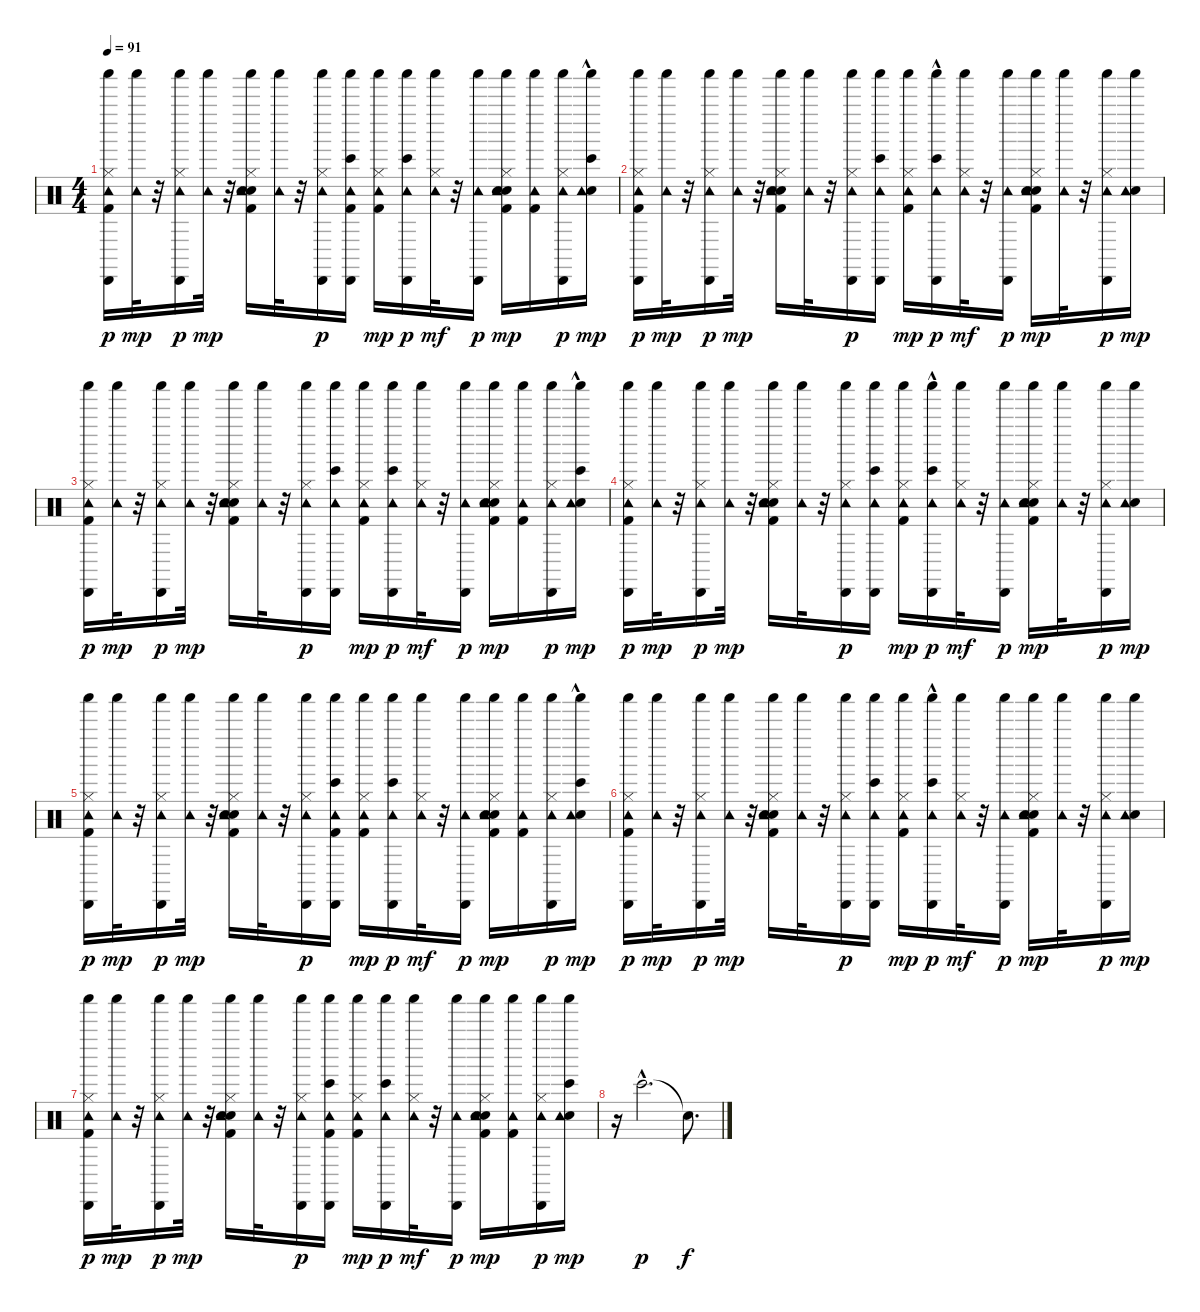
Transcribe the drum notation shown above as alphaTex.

\track "" {instrument percussion}
\staff {score}
\articulation defaults
\ts (4 4)
\tempo 91
\clef neutral
\ks c
("Kick (hit) 2" "Hi-Hat (closed)" "Tambourine (hit)" "Shaker (hit)" "Cabasa (hit)").16{dy p} ("Tambourine (hit)" "Shaker (hit)").32{dy mp} r.32 ("Hi-Hat (closed)" "Tambourine (hit)" "Shaker (hit)" "Cabasa (hit)").16{dy p} ("Tambourine (hit)" "Shaker (hit)").32{dy mp} r.32 ("Kick (hit) 2" "Electric Snare (hit)" "Hi-Hat (closed)" "Hand Clap (hit)" "Tambourine (hit)" "Shaker (hit)").16 ("Tambourine (hit)" "Shaker (hit)").32 r.32 ("Hi-Hat (closed)" "Tambourine (hit)" "Shaker (hit)" "Cabasa (hit)").16{dy p} ("Kick (hit) 2" "Tambourine (hit)" "Shaker (hit)" "Cabasa (hit)" "Bongo High (hit)").16 ("Kick (hit) 2" "Hi-Hat (closed)" "Tambourine (hit)" "Shaker (hit)").16{dy mp} ("Tambourine (hit)" "Shaker (hit)" "Cabasa (hit)" "Bongo High (hit)").16{dy p} ("Hi-Hat (closed)" "Tambourine (hit)" "Shaker (hit)").32{dy mf} r.32 ("Tambourine (hit)" "Shaker (hit)" "Cabasa (hit)").16{dy p} ("Kick (hit) 2" "Electric Snare (hit)" "Hi-Hat (closed)" "Hand Clap (hit)" "Tambourine (hit)" "Shaker (hit)").16{dy mp} ("Kick (hit) 2" "Tambourine (hit)" "Shaker (hit)").16 ("Hi-Hat (closed)" "Tambourine (hit)" "Shaker (hit)" "Cabasa (hit)").16{dy p} ("Electric Snare (hit)" "Tambourine (hit)" "Shaker (hit)" "Bongo High (hit)"{hac}).16{dy mp} |
("Kick (hit) 2" "Hi-Hat (closed)" "Tambourine (hit)" "Shaker (hit)" "Cabasa (hit)").16{dy p} ("Tambourine (hit)" "Shaker (hit)").32{dy mp} r.32 ("Hi-Hat (closed)" "Tambourine (hit)" "Shaker (hit)" "Cabasa (hit)").16{dy p} ("Tambourine (hit)" "Shaker (hit)").32{dy mp} r.32 ("Kick (hit) 2" "Electric Snare (hit)" "Hi-Hat (closed)" "Hand Clap (hit)" "Tambourine (hit)" "Shaker (hit)").16 ("Tambourine (hit)" "Shaker (hit)").32 r.32 ("Hi-Hat (closed)" "Tambourine (hit)" "Shaker (hit)" "Cabasa (hit)").16{dy p} ("Tambourine (hit)" "Shaker (hit)" "Cabasa (hit)" "Bongo High (hit)").16 ("Kick (hit) 2" "Hi-Hat (closed)" "Tambourine (hit)" "Shaker (hit)").16{dy mp} ("Tambourine (hit)" "Shaker (hit)" "Cabasa (hit)" "Bongo High (hit)"{hac}).16{dy p} ("Hi-Hat (closed)" "Tambourine (hit)" "Shaker (hit)").32{dy mf} r.32 ("Tambourine (hit)" "Shaker (hit)" "Cabasa (hit)").16{dy p} ("Kick (hit) 2" "Electric Snare (hit)" "Hi-Hat (closed)" "Hand Clap (hit)" "Tambourine (hit)" "Shaker (hit)").16{dy mp} ("Tambourine (hit)" "Shaker (hit)").32 r.32 ("Hi-Hat (closed)" "Tambourine (hit)" "Shaker (hit)" "Cabasa (hit)").16{dy p} ("Electric Snare (hit)" "Tambourine (hit)" "Shaker (hit)").16{dy mp} |
("Kick (hit) 2" "Hi-Hat (closed)" "Tambourine (hit)" "Shaker (hit)" "Cabasa (hit)").16{dy p} ("Tambourine (hit)" "Shaker (hit)").32{dy mp} r.32 ("Hi-Hat (closed)" "Tambourine (hit)" "Shaker (hit)" "Cabasa (hit)").16{dy p} ("Tambourine (hit)" "Shaker (hit)").32{dy mp} r.32 ("Kick (hit) 2" "Electric Snare (hit)" "Hi-Hat (closed)" "Hand Clap (hit)" "Tambourine (hit)" "Shaker (hit)").16 ("Tambourine (hit)" "Shaker (hit)").32 r.32 ("Hi-Hat (closed)" "Tambourine (hit)" "Shaker (hit)" "Cabasa (hit)").16{dy p} ("Tambourine (hit)" "Shaker (hit)" "Cabasa (hit)" "Bongo High (hit)").16 ("Kick (hit) 2" "Hi-Hat (closed)" "Tambourine (hit)" "Shaker (hit)").16{dy mp} ("Tambourine (hit)" "Shaker (hit)" "Cabasa (hit)" "Bongo High (hit)").16{dy p} ("Hi-Hat (closed)" "Tambourine (hit)" "Shaker (hit)").32{dy mf} r.32 ("Tambourine (hit)" "Shaker (hit)" "Cabasa (hit)").16{dy p} ("Kick (hit) 2" "Electric Snare (hit)" "Hi-Hat (closed)" "Hand Clap (hit)" "Tambourine (hit)" "Shaker (hit)").16{dy mp} ("Kick (hit) 2" "Tambourine (hit)" "Shaker (hit)").16 ("Hi-Hat (closed)" "Tambourine (hit)" "Shaker (hit)" "Cabasa (hit)").16{dy p} ("Electric Snare (hit)" "Tambourine (hit)" "Shaker (hit)" "Bongo High (hit)"{hac}).16{dy mp} |
("Kick (hit) 2" "Hi-Hat (closed)" "Tambourine (hit)" "Shaker (hit)" "Cabasa (hit)").16{dy p} ("Tambourine (hit)" "Shaker (hit)").32{dy mp} r.32 ("Hi-Hat (closed)" "Tambourine (hit)" "Shaker (hit)" "Cabasa (hit)").16{dy p} ("Tambourine (hit)" "Shaker (hit)").32{dy mp} r.32 ("Kick (hit) 2" "Electric Snare (hit)" "Hi-Hat (closed)" "Hand Clap (hit)" "Tambourine (hit)" "Shaker (hit)").16 ("Tambourine (hit)" "Shaker (hit)").32 r.32 ("Hi-Hat (closed)" "Tambourine (hit)" "Shaker (hit)" "Cabasa (hit)").16{dy p} ("Tambourine (hit)" "Shaker (hit)" "Cabasa (hit)" "Bongo High (hit)").16 ("Kick (hit) 2" "Hi-Hat (closed)" "Tambourine (hit)" "Shaker (hit)").16{dy mp} ("Tambourine (hit)" "Shaker (hit)" "Cabasa (hit)" "Bongo High (hit)"{hac}).16{dy p} ("Hi-Hat (closed)" "Tambourine (hit)" "Shaker (hit)").32{dy mf} r.32 ("Tambourine (hit)" "Shaker (hit)" "Cabasa (hit)").16{dy p} ("Kick (hit) 2" "Electric Snare (hit)" "Hi-Hat (closed)" "Hand Clap (hit)" "Tambourine (hit)" "Shaker (hit)").16{dy mp} ("Tambourine (hit)" "Shaker (hit)").32 r.32 ("Hi-Hat (closed)" "Tambourine (hit)" "Shaker (hit)" "Cabasa (hit)").16{dy p} ("Electric Snare (hit)" "Tambourine (hit)" "Shaker (hit)").16{dy mp} |
("Kick (hit) 2" "Hi-Hat (closed)" "Tambourine (hit)" "Shaker (hit)" "Cabasa (hit)").16{dy p} ("Tambourine (hit)" "Shaker (hit)").32{dy mp} r.32 ("Hi-Hat (closed)" "Tambourine (hit)" "Shaker (hit)" "Cabasa (hit)").16{dy p} ("Tambourine (hit)" "Shaker (hit)").32{dy mp} r.32 ("Kick (hit) 2" "Electric Snare (hit)" "Hi-Hat (closed)" "Hand Clap (hit)" "Tambourine (hit)" "Shaker (hit)").16 ("Tambourine (hit)" "Shaker (hit)").32 r.32 ("Hi-Hat (closed)" "Tambourine (hit)" "Shaker (hit)" "Cabasa (hit)").16{dy p} ("Kick (hit) 2" "Tambourine (hit)" "Shaker (hit)" "Cabasa (hit)" "Bongo High (hit)").16 ("Kick (hit) 2" "Hi-Hat (closed)" "Tambourine (hit)" "Shaker (hit)").16{dy mp} ("Tambourine (hit)" "Shaker (hit)" "Cabasa (hit)" "Bongo High (hit)").16{dy p} ("Hi-Hat (closed)" "Tambourine (hit)" "Shaker (hit)").32{dy mf} r.32 ("Tambourine (hit)" "Shaker (hit)" "Cabasa (hit)").16{dy p} ("Kick (hit) 2" "Electric Snare (hit)" "Hi-Hat (closed)" "Hand Clap (hit)" "Tambourine (hit)" "Shaker (hit)").16{dy mp} ("Kick (hit) 2" "Tambourine (hit)" "Shaker (hit)").16 ("Hi-Hat (closed)" "Tambourine (hit)" "Shaker (hit)" "Cabasa (hit)").16{dy p} ("Electric Snare (hit)" "Tambourine (hit)" "Shaker (hit)" "Bongo High (hit)"{hac}).16{dy mp} |
("Kick (hit) 2" "Hi-Hat (closed)" "Tambourine (hit)" "Shaker (hit)" "Cabasa (hit)").16{dy p} ("Tambourine (hit)" "Shaker (hit)").32{dy mp} r.32 ("Hi-Hat (closed)" "Tambourine (hit)" "Shaker (hit)" "Cabasa (hit)").16{dy p} ("Tambourine (hit)" "Shaker (hit)").32{dy mp} r.32 ("Kick (hit) 2" "Electric Snare (hit)" "Hi-Hat (closed)" "Hand Clap (hit)" "Tambourine (hit)" "Shaker (hit)").16 ("Tambourine (hit)" "Shaker (hit)").32 r.32 ("Hi-Hat (closed)" "Tambourine (hit)" "Shaker (hit)" "Cabasa (hit)").16{dy p} ("Tambourine (hit)" "Shaker (hit)" "Cabasa (hit)" "Bongo High (hit)").16 ("Kick (hit) 2" "Hi-Hat (closed)" "Tambourine (hit)" "Shaker (hit)").16{dy mp} ("Tambourine (hit)" "Shaker (hit)" "Cabasa (hit)" "Bongo High (hit)"{hac}).16{dy p} ("Hi-Hat (closed)" "Tambourine (hit)" "Shaker (hit)").32{dy mf} r.32 ("Tambourine (hit)" "Shaker (hit)" "Cabasa (hit)").16{dy p} ("Kick (hit) 2" "Electric Snare (hit)" "Hi-Hat (closed)" "Hand Clap (hit)" "Tambourine (hit)" "Shaker (hit)").16{dy mp} ("Tambourine (hit)" "Shaker (hit)").32 r.32 ("Hi-Hat (closed)" "Tambourine (hit)" "Shaker (hit)" "Cabasa (hit)").16{dy p} ("Electric Snare (hit)" "Tambourine (hit)" "Shaker (hit)").16{dy mp} |
("Kick (hit) 2" "Hi-Hat (closed)" "Tambourine (hit)" "Shaker (hit)" "Cabasa (hit)").16{dy p} ("Tambourine (hit)" "Shaker (hit)").32{dy mp} r.32 ("Hi-Hat (closed)" "Tambourine (hit)" "Shaker (hit)" "Cabasa (hit)").16{dy p} ("Tambourine (hit)" "Shaker (hit)").32{dy mp} r.32 ("Kick (hit) 2" "Electric Snare (hit)" "Hi-Hat (closed)" "Hand Clap (hit)" "Tambourine (hit)" "Shaker (hit)").16 ("Tambourine (hit)" "Shaker (hit)").32 r.32 ("Hi-Hat (closed)" "Tambourine (hit)" "Shaker (hit)" "Cabasa (hit)").16{dy p} ("Kick (hit) 2" "Tambourine (hit)" "Shaker (hit)" "Cabasa (hit)" "Bongo High (hit)").16 ("Kick (hit) 2" "Hi-Hat (closed)" "Tambourine (hit)" "Shaker (hit)").16{dy mp} ("Tambourine (hit)" "Shaker (hit)" "Cabasa (hit)" "Bongo High (hit)").16{dy p} ("Hi-Hat (closed)" "Tambourine (hit)" "Shaker (hit)").32{dy mf} r.32 ("Tambourine (hit)" "Shaker (hit)" "Cabasa (hit)").16{dy p} ("Kick (hit) 2" "Electric Snare (hit)" "Hi-Hat (closed)" "Hand Clap (hit)" "Tambourine (hit)" "Shaker (hit)").16{dy mp} ("Kick (hit) 2" "Tambourine (hit)" "Shaker (hit)").16 ("Hi-Hat (closed)" "Tambourine (hit)" "Shaker (hit)" "Cabasa (hit)").16{dy p} ("Electric Snare (hit)" "Tambourine (hit)" "Shaker (hit)" "Bongo High (hit)").16{dy mp} |
r.16 "Bongo High (hit)"{hac}.2{d dy p} "Snare (hit)"{t}.8{d dy f}
